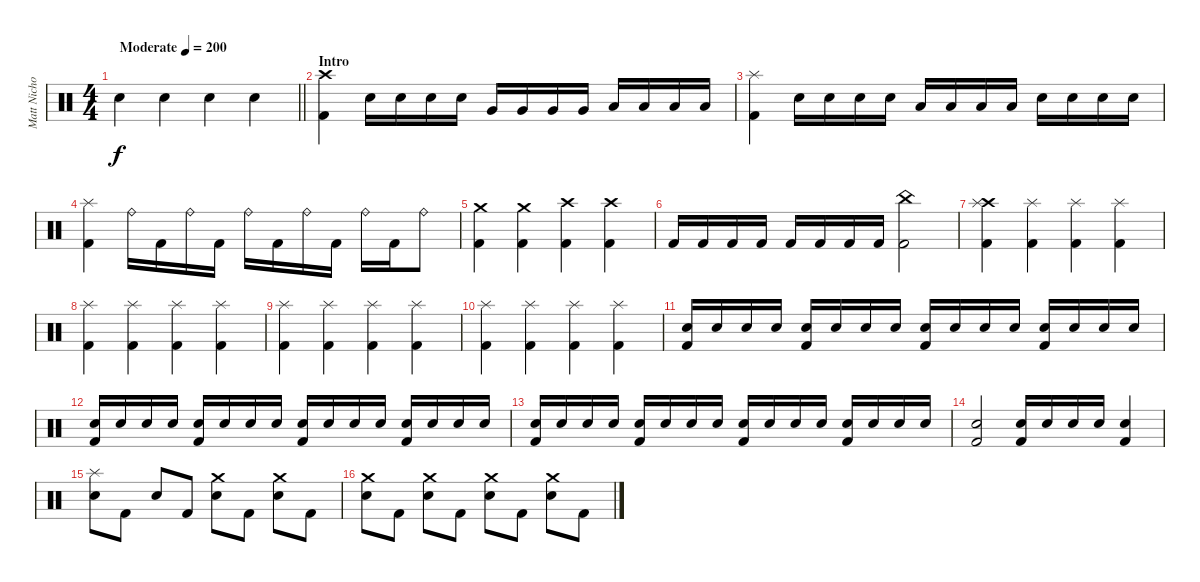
\track ("Matt Nicholls" "Matt Nicho") {instrument percussion}
\staff {score}
\articulation defaults
\ts (4 4)
\tempo (200 "Moderate")
\clef neutral
\barLineRight lightlight
\ks c "Snare (hit) 2".4{dy f} "Snare (hit) 2".4 "Snare (hit) 2".4 "Snare (hit) 2".4
|
\section ("" "Intro")
("Crash high (hit)" "Kick (hit) 2").4 "Snare (hit) 2".16 "Snare (hit) 2".16 "Snare (hit) 2".16 "Snare (hit) 2".16 "Very Low Tom (hit)".16 "Very Low Tom (hit)".16 "Very Low Tom (hit)".16 "Very Low Tom (hit)".16 "Low Floor Tom (hit)".16 "Low Floor Tom (hit)".16 "Low Floor Tom (hit)".16 "Low Floor Tom (hit)".16 |
("Splash (hit)" "Kick (hit) 2").4 "Snare (hit) 2".16 "Snare (hit) 2".16 "Snare (hit) 2".16 "Snare (hit) 2".16 "Low Floor Tom (hit)".16 "Low Floor Tom (hit)".16 "Low Floor Tom (hit)".16 "Low Floor Tom (hit)".16 "Snare (hit) 2".16 "Snare (hit) 2".16 "Snare (hit) 2".16 "Snare (hit) 2".16 |
("Splash (hit)" "Kick (hit) 2").4 "Ride (bell)".16 "Kick (hit) 2".16 "Ride (bell)".16 "Kick (hit) 2".16 "Ride (bell)".16 "Kick (hit) 2".16 "Ride (bell)".16 "Kick (hit) 2".16 "Ride (bell)".16 "Kick (hit) 2".16 "Ride (bell)".8 |
("Crash medium (hit)" "Kick (hit) 2").4 ("Crash medium (hit)" "Kick (hit) 2").4 ("Crash high (hit)" "Kick (hit) 2").4 ("Crash high (hit)" "Kick (hit) 2").4 |
"Kick (hit) 2".16 "Kick (hit) 2".16 "Kick (hit) 2".16 "Kick (hit) 2".16 "Kick (hit) 2".16 "Kick (hit) 2".16 "Kick (hit) 2".16 "Kick (hit) 2".16 ("China (hit)" "Kick (hit) 2").2 |
("Crash high (hit)" "Splash (hit)" "Kick (hit) 2").4 ("Splash (hit)" "Kick (hit) 2").4 ("Splash (hit)" "Kick (hit) 2").4 ("Splash (hit)" "Kick (hit) 2").4 |
("Splash (hit)" "Kick (hit) 2").4 ("Splash (hit)" "Kick (hit) 2").4 ("Splash (hit)" "Kick (hit) 2").4 ("Splash (hit)" "Kick (hit) 2").4 |
("Splash (hit)" "Kick (hit) 2").4 ("Splash (hit)" "Kick (hit) 2").4 ("Splash (hit)" "Kick (hit) 2").4 ("Splash (hit)" "Kick (hit) 2").4 |
("Splash (hit)" "Kick (hit) 2").4 ("Splash (hit)" "Kick (hit) 2").4 ("Splash (hit)" "Kick (hit) 2").4 ("Splash (hit)" "Kick (hit) 2").4 |
("Snare (hit) 2" "Kick (hit) 2").16 "Snare (hit) 2".16 "Snare (hit) 2".16 "Snare (hit) 2".16 ("Snare (hit) 2" "Kick (hit) 2").16 "Snare (hit) 2".16 "Snare (hit) 2".16 "Snare (hit) 2".16 ("Snare (hit) 2" "Kick (hit) 2").16 "Snare (hit) 2".16 "Snare (hit) 2".16 "Snare (hit) 2".16 ("Snare (hit) 2" "Kick (hit) 2").16 "Snare (hit) 2".16 "Snare (hit) 2".16 "Snare (hit) 2".16 |
("Snare (hit) 2" "Kick (hit) 2").16 "Snare (hit) 2".16 "Snare (hit) 2".16 "Snare (hit) 2".16 ("Snare (hit) 2" "Kick (hit) 2").16 "Snare (hit) 2".16 "Snare (hit) 2".16 "Snare (hit) 2".16 ("Snare (hit) 2" "Kick (hit) 2").16 "Snare (hit) 2".16 "Snare (hit) 2".16 "Snare (hit) 2".16 ("Snare (hit) 2" "Kick (hit) 2").16 "Snare (hit) 2".16 "Snare (hit) 2".16 "Snare (hit) 2".16 |
("Snare (hit) 2" "Kick (hit) 2").16 "Snare (hit) 2".16 "Snare (hit) 2".16 "Snare (hit) 2".16 ("Snare (hit) 2" "Kick (hit) 2").16 "Snare (hit) 2".16 "Snare (hit) 2".16 "Snare (hit) 2".16 ("Snare (hit) 2" "Kick (hit) 2").16 "Snare (hit) 2".16 "Snare (hit) 2".16 "Snare (hit) 2".16 ("Snare (hit) 2" "Kick (hit) 2").16 "Snare (hit) 2".16 "Snare (hit) 2".16 "Snare (hit) 2".16 |
("Snare (hit) 2" "Kick (hit) 2").2 ("Snare (hit) 2" "Kick (hit) 2").16 "Snare (hit) 2".16 "Snare (hit) 2".16 "Snare (hit) 2".16 ("Snare (hit) 2" "Kick (hit) 2").4 |
("Splash (hit)" "Snare (hit) 2").8 "Kick (hit) 2".8 "Snare (hit) 2".8 "Kick (hit) 2".8 ("Crash medium (hit)" "Snare (hit) 2").8 "Kick (hit) 2".8 ("Crash medium (hit)" "Snare (hit) 2").8 "Kick (hit) 2".8 |
("Crash medium (hit)" "Snare (hit) 2").8 "Kick (hit) 2".8 ("Crash medium (hit)" "Snare (hit) 2").8 "Kick (hit) 2".8 ("Crash medium (hit)" "Snare (hit) 2").8 "Kick (hit) 2".8 ("Crash medium (hit)" "Snare (hit) 2").8 "Kick (hit) 2".8
